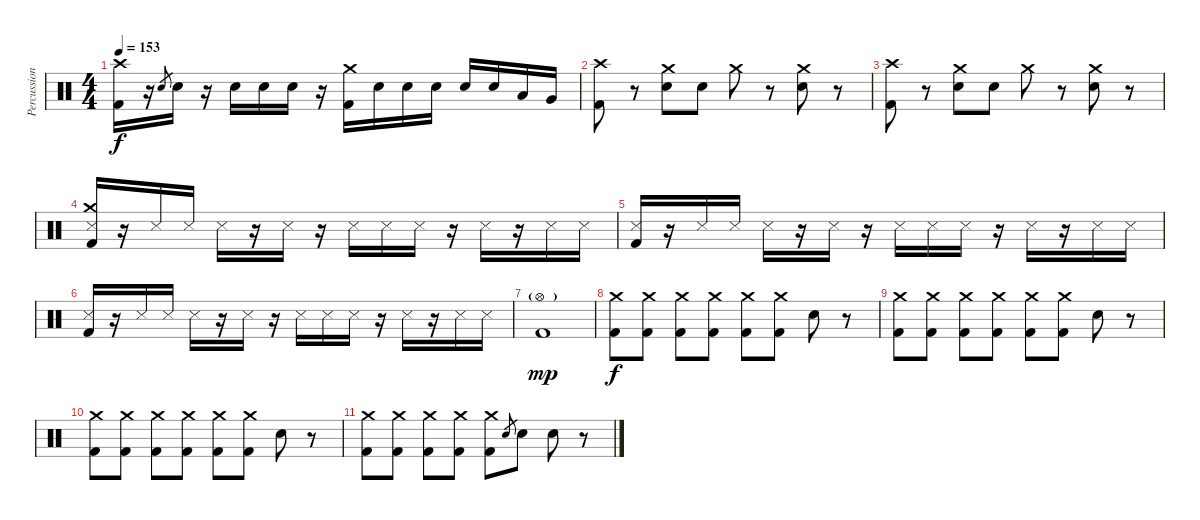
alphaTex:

\track ("Percussion" "Percussion") {instrument percussion}
\staff {score}
\articulation defaults
\ts (4 4)
\tempo 153
\clef neutral
\ks c
("Crash high (hit)" "Kick (hit) 2").16{dy f} r.16 "Electric Snare (hit)".8{gr} "Electric Snare (hit)".16 r.16 "Electric Snare (hit)".16 "Electric Snare (hit)".16 "Electric Snare (hit)".16 r.16 ("Crash medium (hit)" "Kick (hit) 2").16 "Electric Snare (hit)".16 "Electric Snare (hit)".16 "Electric Snare (hit)".16 "Electric Snare (hit)".16 "Electric Snare (hit)".16 "Low Tom (hit)".16 "Very Low Tom (hit)".16 |
("Crash high (hit)" "Kick (hit) 2").8 r.8 ("Crash medium (hit)" "Electric Snare (hit)").8 "Electric Snare (hit)".8 "Crash medium (hit)".8 r.8 ("Crash medium (hit)" "Electric Snare (hit)").8 r.8 |
("Crash high (hit)" "Kick (hit) 2").8 r.8 ("Crash medium (hit)" "Electric Snare (hit)").8 "Electric Snare (hit)".8 "Crash medium (hit)".8 r.8 ("Crash medium (hit)" "Electric Snare (hit)").8 r.8 |
("Crash medium (hit)" "Snare (side stick) 3" "Kick (hit) 2").16 r.16 "Snare (side stick) 3".16 "Snare (side stick) 3".16 "Snare (side stick) 3".16 r.16 "Snare (side stick) 3".16 r.16 "Snare (side stick) 3".16 "Snare (side stick) 3".16 "Snare (side stick) 3".16 r.16 "Snare (side stick) 3".16 r.16 "Snare (side stick) 3".16 "Snare (side stick) 3".16 |
("Snare (side stick) 3" "Kick (hit) 2").16 r.16 "Snare (side stick) 3".16 "Snare (side stick) 3".16 "Snare (side stick) 3".16 r.16 "Snare (side stick) 3".16 r.16 "Snare (side stick) 3".16 "Snare (side stick) 3".16 "Snare (side stick) 3".16 r.16 "Snare (side stick) 3".16 r.16 "Snare (side stick) 3".16 "Snare (side stick) 3".16 |
("Snare (side stick) 3" "Kick (hit) 2").16 r.16 "Snare (side stick) 3".16 "Snare (side stick) 3".16 "Snare (side stick) 3".16 r.16 "Snare (side stick) 3".16 r.16 "Snare (side stick) 3".16 "Snare (side stick) 3".16 "Snare (side stick) 3".16 r.16 "Snare (side stick) 3".16 r.16 "Snare (side stick) 3".16 "Snare (side stick) 3".16 |
("Hi-Hat (open)"{g} "Kick (hit) 2").1{dy mp} |
\section ("" "")
("Crash medium (hit)" "Kick (hit) 2").8{dy f} ("Crash medium (hit)" "Kick (hit) 2").8 ("Crash medium (hit)" "Kick (hit) 2").8 ("Crash medium (hit)" "Kick (hit) 2").8 ("Crash medium (hit)" "Kick (hit) 2").8 ("Crash medium (hit)" "Kick (hit) 2").8 "Electric Snare (hit)".8 r.8 |
("Crash medium (hit)" "Kick (hit) 2").8 ("Crash medium (hit)" "Kick (hit) 2").8 ("Crash medium (hit)" "Kick (hit) 2").8 ("Crash medium (hit)" "Kick (hit) 2").8 ("Crash medium (hit)" "Kick (hit) 2").8 ("Crash medium (hit)" "Kick (hit) 2").8 "Electric Snare (hit)".8 r.8 |
("Crash medium (hit)" "Kick (hit) 2").8 ("Crash medium (hit)" "Kick (hit) 2").8 ("Crash medium (hit)" "Kick (hit) 2").8 ("Crash medium (hit)" "Kick (hit) 2").8 ("Crash medium (hit)" "Kick (hit) 2").8 ("Crash medium (hit)" "Kick (hit) 2").8 "Electric Snare (hit)".8 r.8 |
("Crash medium (hit)" "Kick (hit) 2").8 ("Crash medium (hit)" "Kick (hit) 2").8 ("Crash medium (hit)" "Kick (hit) 2").8 ("Crash medium (hit)" "Kick (hit) 2").8 ("Crash medium (hit)" "Kick (hit) 2").8 "Electric Snare (hit)".8{gr} "Electric Snare (hit)".8 "Electric Snare (hit)".8 r.8
